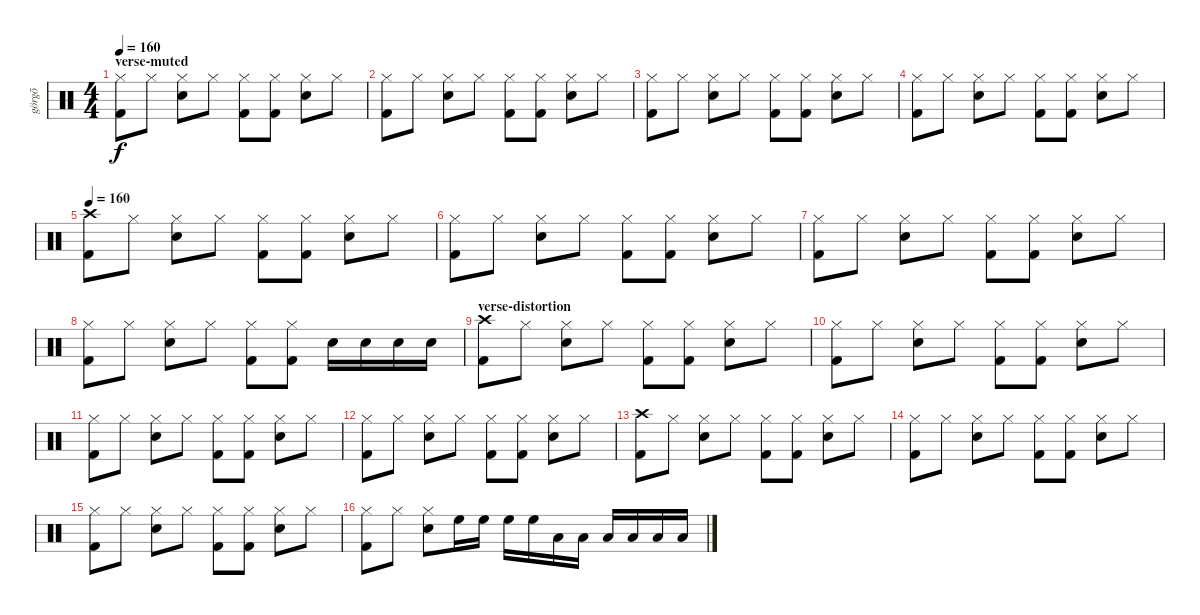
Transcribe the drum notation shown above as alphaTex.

\track ("görgõ" "görgõ") {instrument percussion}
\staff {score}
\articulation defaults
\ts (4 4)
\section ("" "verse-muted")
\tempo 160
\clef neutral
\ks c
("Hi-Hat (closed)" "Kick (hit) 2").8{dy f} "Hi-Hat (closed)".8 ("Hi-Hat (closed)" "Snare (hit) 2").8 "Hi-Hat (closed)".8 ("Hi-Hat (closed)" "Kick (hit) 2").8 ("Hi-Hat (closed)" "Kick (hit) 2").8 ("Hi-Hat (closed)" "Snare (hit) 2").8 "Hi-Hat (closed)".8 |
("Hi-Hat (closed)" "Kick (hit) 2").8 "Hi-Hat (closed)".8 ("Hi-Hat (closed)" "Snare (hit) 2").8 "Hi-Hat (closed)".8 ("Hi-Hat (closed)" "Kick (hit) 2").8 ("Hi-Hat (closed)" "Kick (hit) 2").8 ("Hi-Hat (closed)" "Snare (hit) 2").8 "Hi-Hat (closed)".8 |
("Hi-Hat (closed)" "Kick (hit) 2").8 "Hi-Hat (closed)".8 ("Hi-Hat (closed)" "Snare (hit) 2").8 "Hi-Hat (closed)".8 ("Hi-Hat (closed)" "Kick (hit) 2").8 ("Hi-Hat (closed)" "Kick (hit) 2").8 ("Hi-Hat (closed)" "Snare (hit) 2").8 "Hi-Hat (closed)".8 |
("Hi-Hat (closed)" "Kick (hit) 2").8 "Hi-Hat (closed)".8 ("Hi-Hat (closed)" "Snare (hit) 2").8 "Hi-Hat (closed)".8 ("Hi-Hat (closed)" "Kick (hit) 2").8 ("Hi-Hat (closed)" "Kick (hit) 2").8 ("Hi-Hat (closed)" "Snare (hit) 2").8 "Hi-Hat (closed)".8 |
\tempo 160
("Crash high (hit)" "Kick (hit) 2").8 "Hi-Hat (closed)".8 ("Hi-Hat (closed)" "Snare (hit) 2").8 "Hi-Hat (closed)".8 ("Hi-Hat (closed)" "Kick (hit) 2").8 ("Hi-Hat (closed)" "Kick (hit) 2").8 ("Hi-Hat (closed)" "Snare (hit) 2").8 "Hi-Hat (closed)".8 |
("Hi-Hat (closed)" "Kick (hit) 2").8 "Hi-Hat (closed)".8 ("Hi-Hat (closed)" "Snare (hit) 2").8 "Hi-Hat (closed)".8 ("Hi-Hat (closed)" "Kick (hit) 2").8 ("Hi-Hat (closed)" "Kick (hit) 2").8 ("Hi-Hat (closed)" "Snare (hit) 2").8 "Hi-Hat (closed)".8 |
("Hi-Hat (closed)" "Kick (hit) 2").8 "Hi-Hat (closed)".8 ("Hi-Hat (closed)" "Snare (hit) 2").8 "Hi-Hat (closed)".8 ("Hi-Hat (closed)" "Kick (hit) 2").8 ("Hi-Hat (closed)" "Kick (hit) 2").8 ("Hi-Hat (closed)" "Snare (hit) 2").8 "Hi-Hat (closed)".8 |
("Hi-Hat (closed)" "Kick (hit) 2").8 "Hi-Hat (closed)".8 ("Hi-Hat (closed)" "Snare (hit) 2").8 "Hi-Hat (closed)".8 ("Hi-Hat (closed)" "Kick (hit) 2").8 ("Hi-Hat (closed)" "Kick (hit) 2").8 "Snare (hit) 2".16 "Snare (hit) 2".16 "Snare (hit) 2".16 "Snare (hit) 2".16 |
\section ("" "verse-distortion")
("Crash high (hit)" "Kick (hit) 2").8 "Hi-Hat (closed)".8 ("Hi-Hat (closed)" "Snare (hit) 2").8 "Hi-Hat (closed)".8 ("Hi-Hat (closed)" "Kick (hit) 2").8 ("Hi-Hat (closed)" "Kick (hit) 2").8 ("Hi-Hat (closed)" "Snare (hit) 2").8 "Hi-Hat (closed)".8 |
("Hi-Hat (closed)" "Kick (hit) 2").8 "Hi-Hat (closed)".8 ("Hi-Hat (closed)" "Snare (hit) 2").8 "Hi-Hat (closed)".8 ("Hi-Hat (closed)" "Kick (hit) 2").8 ("Hi-Hat (closed)" "Kick (hit) 2").8 ("Hi-Hat (closed)" "Snare (hit) 2").8 "Hi-Hat (closed)".8 |
("Hi-Hat (closed)" "Kick (hit) 2").8 "Hi-Hat (closed)".8 ("Hi-Hat (closed)" "Snare (hit) 2").8 "Hi-Hat (closed)".8 ("Hi-Hat (closed)" "Kick (hit) 2").8 ("Hi-Hat (closed)" "Kick (hit) 2").8 ("Hi-Hat (closed)" "Snare (hit) 2").8 "Hi-Hat (closed)".8 |
("Hi-Hat (closed)" "Kick (hit) 2").8 "Hi-Hat (closed)".8 ("Hi-Hat (closed)" "Snare (hit) 2").8 "Hi-Hat (closed)".8 ("Hi-Hat (closed)" "Kick (hit) 2").8 ("Hi-Hat (closed)" "Kick (hit) 2").8 ("Hi-Hat (closed)" "Snare (hit) 2").8 "Hi-Hat (closed)".8 |
("Crash high (hit)" "Kick (hit) 2").8 "Hi-Hat (closed)".8 ("Hi-Hat (closed)" "Snare (hit) 2").8 "Hi-Hat (closed)".8 ("Hi-Hat (closed)" "Kick (hit) 2").8 ("Hi-Hat (closed)" "Kick (hit) 2").8 ("Hi-Hat (closed)" "Snare (hit) 2").8 "Hi-Hat (closed)".8 |
("Hi-Hat (closed)" "Kick (hit) 2").8 "Hi-Hat (closed)".8 ("Hi-Hat (closed)" "Snare (hit) 2").8 "Hi-Hat (closed)".8 ("Hi-Hat (closed)" "Kick (hit) 2").8 ("Hi-Hat (closed)" "Kick (hit) 2").8 ("Hi-Hat (closed)" "Snare (hit) 2").8 "Hi-Hat (closed)".8 |
("Hi-Hat (closed)" "Kick (hit) 2").8 "Hi-Hat (closed)".8 ("Hi-Hat (closed)" "Snare (hit) 2").8 "Hi-Hat (closed)".8 ("Hi-Hat (closed)" "Kick (hit) 2").8 ("Hi-Hat (closed)" "Kick (hit) 2").8 ("Hi-Hat (closed)" "Snare (hit) 2").8 "Hi-Hat (closed)".8 |
("Hi-Hat (closed)" "Kick (hit) 2").8 "Hi-Hat (closed)".8 ("Hi-Hat (closed)" "Snare (hit) 2").8 "High Floor Tom (hit)".16 "High Floor Tom (hit)".16 "High Floor Tom (hit)".16 "High Floor Tom (hit)".16 "Low Tom (hit)".16 "Low Tom (hit)".16 "Low Tom (hit)".16 "Low Tom (hit)".16 "Low Tom (hit)".16 "Low Tom (hit)".16
